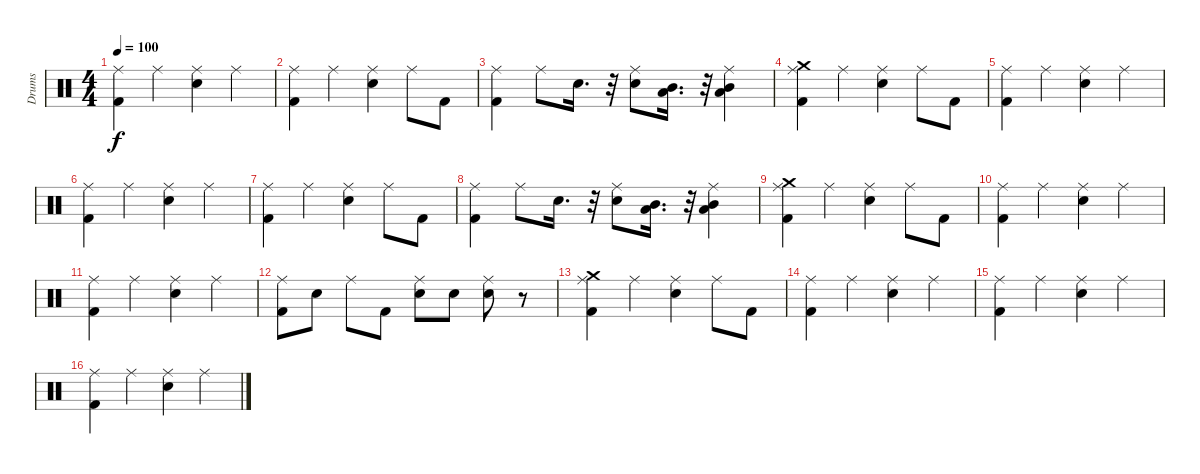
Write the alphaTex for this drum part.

\track ("Drums" "Drums") {instrument percussion}
\staff {score}
\articulation defaults
\ts (4 4)
\tempo 100
\clef neutral
\ks c
("Ride (middle)" "Kick (hit) 2").4{dy f} "Ride (middle)".4 ("Ride (middle)" "Snare (hit) 2").4 "Ride (middle)".4 |
("Ride (middle)" "Kick (hit) 2").4 "Ride (middle)".4 ("Snare (hit) 2" "Ride (middle)").4 "Ride (middle)".8 "Kick (hit) 2".8 |
("Ride (middle)" "Kick (hit) 2").4 "Ride (middle)".8 "Snare (hit) 2".16{d} r.32 ("Snare (hit) 2" "Ride (middle)").8 ("Mid Tom (hit)" "Low Tom (hit)").16{d} r.32 ("Low Tom (hit)" "Mid Tom (hit)" "Ride (middle)").4 |
("Ride (middle)" "Kick (hit) 2" "Crash medium (hit)").4 "Ride (middle)".4 ("Snare (hit) 2" "Ride (middle)").4 "Ride (middle)".8 "Kick (hit) 2".8 |
("Ride (middle)" "Kick (hit) 2").4 "Ride (middle)".4 ("Ride (middle)" "Snare (hit) 2").4 "Ride (middle)".4 |
("Ride (middle)" "Kick (hit) 2").4 "Ride (middle)".4 ("Ride (middle)" "Snare (hit) 2").4 "Ride (middle)".4 |
("Ride (middle)" "Kick (hit) 2").4 "Ride (middle)".4 ("Snare (hit) 2" "Ride (middle)").4 "Ride (middle)".8 "Kick (hit) 2".8 |
("Ride (middle)" "Kick (hit) 2").4 "Ride (middle)".8 "Snare (hit) 2".16{d} r.32 ("Snare (hit) 2" "Ride (middle)").8 ("Mid Tom (hit)" "Low Tom (hit)").16{d} r.32 ("Low Tom (hit)" "Mid Tom (hit)" "Ride (middle)").4 |
("Ride (middle)" "Kick (hit) 2" "Crash medium (hit)").4 "Ride (middle)".4 ("Snare (hit) 2" "Ride (middle)").4 "Ride (middle)".8 "Kick (hit) 2".8 |
("Ride (middle)" "Kick (hit) 2").4 "Ride (middle)".4 ("Ride (middle)" "Snare (hit) 2").4 "Ride (middle)".4 |
("Ride (middle)" "Kick (hit) 2").4 "Ride (middle)".4 ("Ride (middle)" "Snare (hit) 2").4 "Ride (middle)".4 |
("Ride (middle)" "Kick (hit) 2").8 "Snare (hit) 2".8 "Ride (middle)".8 "Kick (hit) 2".8 ("Snare (hit) 2" "Ride (middle)").8 "Snare (hit) 2".8 ("Snare (hit) 2" "Ride (middle)").8 r.8 |
("Ride (middle)" "Kick (hit) 2" "Crash medium (hit)").4 "Ride (middle)".4 ("Snare (hit) 2" "Ride (middle)").4 "Ride (middle)".8 "Kick (hit) 2".8 |
("Ride (middle)" "Kick (hit) 2").4 "Ride (middle)".4 ("Ride (middle)" "Snare (hit) 2").4 "Ride (middle)".4 |
("Ride (middle)" "Kick (hit) 2").4 "Ride (middle)".4 ("Ride (middle)" "Snare (hit) 2").4 "Ride (middle)".4 |
("Ride (middle)" "Kick (hit) 2").4 "Ride (middle)".4 ("Ride (middle)" "Snare (hit) 2").4 "Ride (middle)".4
